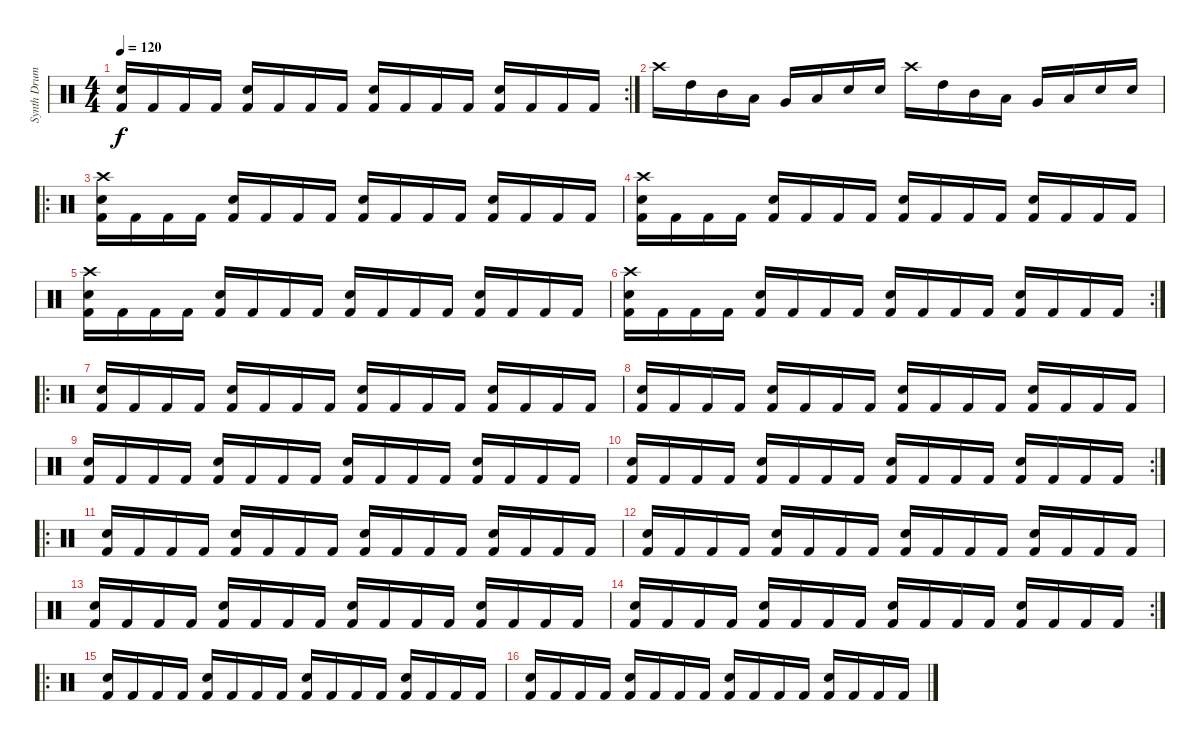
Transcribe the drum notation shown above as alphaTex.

\track ("Synth Drums" "Synth Drum") {instrument percussion}
\staff {score}
\articulation defaults
\rc 2
\ts (4 4)
\tempo 120
\clef neutral
\ks c
("Electric Snare (hit)" "Kick (hit) 2").16{dy f} "Kick (hit) 2".16 "Kick (hit) 2".16 "Kick (hit) 2".16 ("Electric Snare (hit)" "Kick (hit) 2").16 "Kick (hit) 2".16 "Kick (hit) 2".16 "Kick (hit) 2".16 ("Electric Snare (hit)" "Kick (hit) 2").16 "Kick (hit) 2".16 "Kick (hit) 2".16 "Kick (hit) 2".16 ("Electric Snare (hit)" "Kick (hit) 2").16 "Kick (hit) 2".16 "Kick (hit) 2".16 "Kick (hit) 2".16 |
"Crash high (hit)".16 "High Tom (hit)".16 "Mid Tom (hit)".16 "Low Tom (hit)".16 "Very Low Tom (hit)".16 "Low Floor Tom (hit)".16 "Electric Snare (hit)".16 "Electric Snare (hit)".16 "Crash high (hit)".16 "High Tom (hit)".16 "Mid Tom (hit)".16 "Low Tom (hit)".16 "Very Low Tom (hit)".16 "Low Floor Tom (hit)".16 "Electric Snare (hit)".16 "Electric Snare (hit)".16 |
\ro
("Crash high (hit)" "Electric Snare (hit)" "Kick (hit) 2").16 "Kick (hit) 2".16 "Kick (hit) 2".16 "Kick (hit) 2".16 ("Electric Snare (hit)" "Kick (hit) 2").16 "Kick (hit) 2".16 "Kick (hit) 2".16 "Kick (hit) 2".16 ("Electric Snare (hit)" "Kick (hit) 2").16 "Kick (hit) 2".16 "Kick (hit) 2".16 "Kick (hit) 2".16 ("Electric Snare (hit)" "Kick (hit) 2").16 "Kick (hit) 2".16 "Kick (hit) 2".16 "Kick (hit) 2".16 |
("Crash high (hit)" "Electric Snare (hit)" "Kick (hit) 2").16 "Kick (hit) 2".16 "Kick (hit) 2".16 "Kick (hit) 2".16 ("Electric Snare (hit)" "Kick (hit) 2").16 "Kick (hit) 2".16 "Kick (hit) 2".16 "Kick (hit) 2".16 ("Electric Snare (hit)" "Kick (hit) 2").16 "Kick (hit) 2".16 "Kick (hit) 2".16 "Kick (hit) 2".16 ("Electric Snare (hit)" "Kick (hit) 2").16 "Kick (hit) 2".16 "Kick (hit) 2".16 "Kick (hit) 2".16 |
("Crash high (hit)" "Electric Snare (hit)" "Kick (hit) 2").16 "Kick (hit) 2".16 "Kick (hit) 2".16 "Kick (hit) 2".16 ("Electric Snare (hit)" "Kick (hit) 2").16 "Kick (hit) 2".16 "Kick (hit) 2".16 "Kick (hit) 2".16 ("Electric Snare (hit)" "Kick (hit) 2").16 "Kick (hit) 2".16 "Kick (hit) 2".16 "Kick (hit) 2".16 ("Electric Snare (hit)" "Kick (hit) 2").16 "Kick (hit) 2".16 "Kick (hit) 2".16 "Kick (hit) 2".16 |
\rc 2
("Crash high (hit)" "Electric Snare (hit)" "Kick (hit) 2").16 "Kick (hit) 2".16 "Kick (hit) 2".16 "Kick (hit) 2".16 ("Electric Snare (hit)" "Kick (hit) 2").16 "Kick (hit) 2".16 "Kick (hit) 2".16 "Kick (hit) 2".16 ("Electric Snare (hit)" "Kick (hit) 2").16 "Kick (hit) 2".16 "Kick (hit) 2".16 "Kick (hit) 2".16 ("Electric Snare (hit)" "Kick (hit) 2").16 "Kick (hit) 2".16 "Kick (hit) 2".16 "Kick (hit) 2".16 |
\ro
("Electric Snare (hit)" "Kick (hit) 2").16 "Kick (hit) 2".16 "Kick (hit) 2".16 "Kick (hit) 2".16 ("Electric Snare (hit)" "Kick (hit) 2").16 "Kick (hit) 2".16 "Kick (hit) 2".16 "Kick (hit) 2".16 ("Electric Snare (hit)" "Kick (hit) 2").16 "Kick (hit) 2".16 "Kick (hit) 2".16 "Kick (hit) 2".16 ("Electric Snare (hit)" "Kick (hit) 2").16 "Kick (hit) 2".16 "Kick (hit) 2".16 "Kick (hit) 2".16 |
("Electric Snare (hit)" "Kick (hit) 2").16 "Kick (hit) 2".16 "Kick (hit) 2".16 "Kick (hit) 2".16 ("Electric Snare (hit)" "Kick (hit) 2").16 "Kick (hit) 2".16 "Kick (hit) 2".16 "Kick (hit) 2".16 ("Electric Snare (hit)" "Kick (hit) 2").16 "Kick (hit) 2".16 "Kick (hit) 2".16 "Kick (hit) 2".16 ("Electric Snare (hit)" "Kick (hit) 2").16 "Kick (hit) 2".16 "Kick (hit) 2".16 "Kick (hit) 2".16 |
("Electric Snare (hit)" "Kick (hit) 2").16 "Kick (hit) 2".16 "Kick (hit) 2".16 "Kick (hit) 2".16 ("Electric Snare (hit)" "Kick (hit) 2").16 "Kick (hit) 2".16 "Kick (hit) 2".16 "Kick (hit) 2".16 ("Electric Snare (hit)" "Kick (hit) 2").16 "Kick (hit) 2".16 "Kick (hit) 2".16 "Kick (hit) 2".16 ("Electric Snare (hit)" "Kick (hit) 2").16 "Kick (hit) 2".16 "Kick (hit) 2".16 "Kick (hit) 2".16 |
\rc 2
("Electric Snare (hit)" "Kick (hit) 2").16 "Kick (hit) 2".16 "Kick (hit) 2".16 "Kick (hit) 2".16 ("Electric Snare (hit)" "Kick (hit) 2").16 "Kick (hit) 2".16 "Kick (hit) 2".16 "Kick (hit) 2".16 ("Electric Snare (hit)" "Kick (hit) 2").16 "Kick (hit) 2".16 "Kick (hit) 2".16 "Kick (hit) 2".16 ("Electric Snare (hit)" "Kick (hit) 2").16 "Kick (hit) 2".16 "Kick (hit) 2".16 "Kick (hit) 2".16 |
\ro
("Electric Snare (hit)" "Kick (hit) 2").16 "Kick (hit) 2".16 "Kick (hit) 2".16 "Kick (hit) 2".16 ("Electric Snare (hit)" "Kick (hit) 2").16 "Kick (hit) 2".16 "Kick (hit) 2".16 "Kick (hit) 2".16 ("Electric Snare (hit)" "Kick (hit) 2").16 "Kick (hit) 2".16 "Kick (hit) 2".16 "Kick (hit) 2".16 ("Electric Snare (hit)" "Kick (hit) 2").16 "Kick (hit) 2".16 "Kick (hit) 2".16 "Kick (hit) 2".16 |
("Electric Snare (hit)" "Kick (hit) 2").16 "Kick (hit) 2".16 "Kick (hit) 2".16 "Kick (hit) 2".16 ("Electric Snare (hit)" "Kick (hit) 2").16 "Kick (hit) 2".16 "Kick (hit) 2".16 "Kick (hit) 2".16 ("Electric Snare (hit)" "Kick (hit) 2").16 "Kick (hit) 2".16 "Kick (hit) 2".16 "Kick (hit) 2".16 ("Electric Snare (hit)" "Kick (hit) 2").16 "Kick (hit) 2".16 "Kick (hit) 2".16 "Kick (hit) 2".16 |
("Electric Snare (hit)" "Kick (hit) 2").16 "Kick (hit) 2".16 "Kick (hit) 2".16 "Kick (hit) 2".16 ("Electric Snare (hit)" "Kick (hit) 2").16 "Kick (hit) 2".16 "Kick (hit) 2".16 "Kick (hit) 2".16 ("Electric Snare (hit)" "Kick (hit) 2").16 "Kick (hit) 2".16 "Kick (hit) 2".16 "Kick (hit) 2".16 ("Electric Snare (hit)" "Kick (hit) 2").16 "Kick (hit) 2".16 "Kick (hit) 2".16 "Kick (hit) 2".16 |
\rc 2
("Electric Snare (hit)" "Kick (hit) 2").16 "Kick (hit) 2".16 "Kick (hit) 2".16 "Kick (hit) 2".16 ("Electric Snare (hit)" "Kick (hit) 2").16 "Kick (hit) 2".16 "Kick (hit) 2".16 "Kick (hit) 2".16 ("Electric Snare (hit)" "Kick (hit) 2").16 "Kick (hit) 2".16 "Kick (hit) 2".16 "Kick (hit) 2".16 ("Electric Snare (hit)" "Kick (hit) 2").16 "Kick (hit) 2".16 "Kick (hit) 2".16 "Kick (hit) 2".16 |
\ro
("Electric Snare (hit)" "Kick (hit) 2").16 "Kick (hit) 2".16 "Kick (hit) 2".16 "Kick (hit) 2".16 ("Electric Snare (hit)" "Kick (hit) 2").16 "Kick (hit) 2".16 "Kick (hit) 2".16 "Kick (hit) 2".16 ("Electric Snare (hit)" "Kick (hit) 2").16 "Kick (hit) 2".16 "Kick (hit) 2".16 "Kick (hit) 2".16 ("Electric Snare (hit)" "Kick (hit) 2").16 "Kick (hit) 2".16 "Kick (hit) 2".16 "Kick (hit) 2".16 |
("Electric Snare (hit)" "Kick (hit) 2").16 "Kick (hit) 2".16 "Kick (hit) 2".16 "Kick (hit) 2".16 ("Electric Snare (hit)" "Kick (hit) 2").16 "Kick (hit) 2".16 "Kick (hit) 2".16 "Kick (hit) 2".16 ("Electric Snare (hit)" "Kick (hit) 2").16 "Kick (hit) 2".16 "Kick (hit) 2".16 "Kick (hit) 2".16 ("Electric Snare (hit)" "Kick (hit) 2").16 "Kick (hit) 2".16 "Kick (hit) 2".16 "Kick (hit) 2".16
